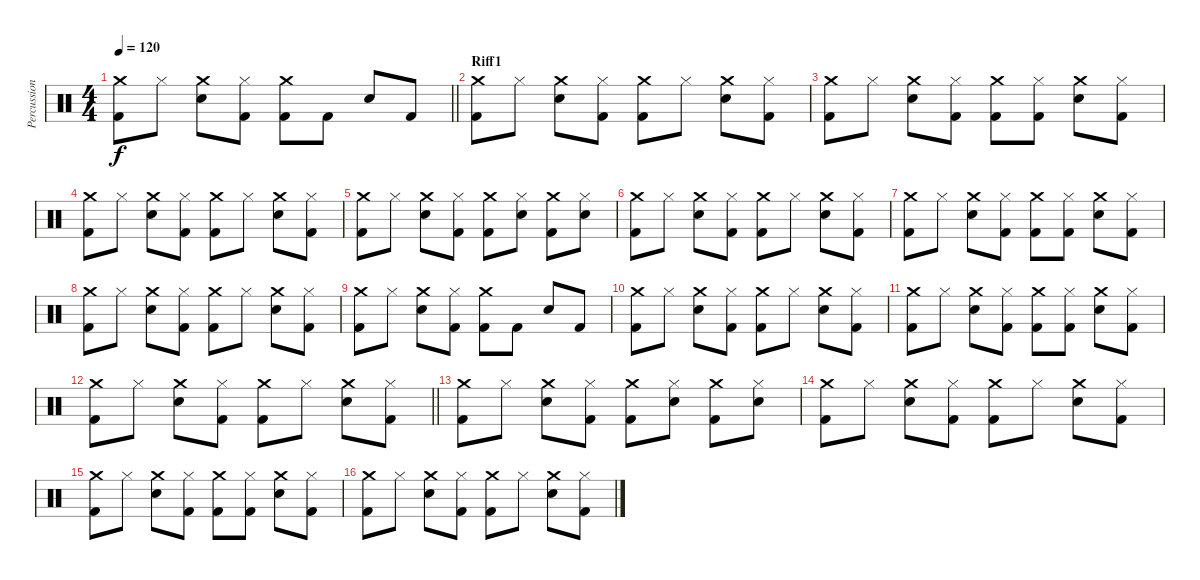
\track ("Percussion" "Percussion") {instrument percussion}
\staff {score}
\articulation defaults
\ts (4 4)
\tempo 120
\clef neutral
\barLineRight lightlight
\ks c
("Crash medium (hit)" "Kick (hit) 2").8{dy f} "Hi-Hat (closed)".8 ("Crash medium (hit)" "Electric Snare (hit)").8 ("Hi-Hat (closed)" "Kick (hit) 2").8 ("Crash medium (hit)" "Kick (hit) 2").8 "Kick (hit) 2".8 "Electric Snare (hit)".8 "Kick (hit) 2".8 |
\section ("" "Riff1")
("Crash medium (hit)" "Kick (hit) 2").8 "Hi-Hat (closed)".8 ("Crash medium (hit)" "Electric Snare (hit)").8 ("Hi-Hat (closed)" "Kick (hit) 2").8 ("Crash medium (hit)" "Kick (hit) 2").8 "Hi-Hat (closed)".8 ("Crash medium (hit)" "Electric Snare (hit)").8 ("Hi-Hat (closed)" "Kick (hit) 2").8 |
("Crash medium (hit)" "Kick (hit) 2").8 "Hi-Hat (closed)".8 ("Crash medium (hit)" "Electric Snare (hit)").8 ("Hi-Hat (closed)" "Kick (hit) 2").8 ("Crash medium (hit)" "Kick (hit) 2").8 ("Hi-Hat (closed)" "Kick (hit) 2").8 ("Crash medium (hit)" "Electric Snare (hit)").8 ("Hi-Hat (closed)" "Kick (hit) 2").8 |
("Crash medium (hit)" "Kick (hit) 2").8 "Hi-Hat (closed)".8 ("Crash medium (hit)" "Electric Snare (hit)").8 ("Hi-Hat (closed)" "Kick (hit) 2").8 ("Crash medium (hit)" "Kick (hit) 2").8 "Hi-Hat (closed)".8 ("Crash medium (hit)" "Electric Snare (hit)").8 ("Hi-Hat (closed)" "Kick (hit) 2").8 |
("Crash medium (hit)" "Kick (hit) 2").8 "Hi-Hat (closed)".8 ("Crash medium (hit)" "Electric Snare (hit)").8 ("Hi-Hat (closed)" "Kick (hit) 2").8 ("Crash medium (hit)" "Kick (hit) 2").8 ("Hi-Hat (closed)" "Electric Snare (hit)").8 ("Crash medium (hit)" "Kick (hit) 2").8 ("Hi-Hat (closed)" "Electric Snare (hit)").8 |
("Crash medium (hit)" "Kick (hit) 2").8 "Hi-Hat (closed)".8 ("Crash medium (hit)" "Electric Snare (hit)").8 ("Hi-Hat (closed)" "Kick (hit) 2").8 ("Crash medium (hit)" "Kick (hit) 2").8 "Hi-Hat (closed)".8 ("Crash medium (hit)" "Electric Snare (hit)").8 ("Hi-Hat (closed)" "Kick (hit) 2").8 |
("Crash medium (hit)" "Kick (hit) 2").8 "Hi-Hat (closed)".8 ("Crash medium (hit)" "Electric Snare (hit)").8 ("Hi-Hat (closed)" "Kick (hit) 2").8 ("Crash medium (hit)" "Kick (hit) 2").8 ("Hi-Hat (closed)" "Kick (hit) 2").8 ("Crash medium (hit)" "Electric Snare (hit)").8 ("Hi-Hat (closed)" "Kick (hit) 2").8 |
("Crash medium (hit)" "Kick (hit) 2").8 "Hi-Hat (closed)".8 ("Crash medium (hit)" "Electric Snare (hit)").8 ("Hi-Hat (closed)" "Kick (hit) 2").8 ("Crash medium (hit)" "Kick (hit) 2").8 "Hi-Hat (closed)".8 ("Crash medium (hit)" "Electric Snare (hit)").8 ("Hi-Hat (closed)" "Kick (hit) 2").8 |
("Crash medium (hit)" "Kick (hit) 2").8 "Hi-Hat (closed)".8 ("Crash medium (hit)" "Electric Snare (hit)").8 ("Hi-Hat (closed)" "Kick (hit) 2").8 ("Crash medium (hit)" "Kick (hit) 2").8 "Kick (hit) 2".8 "Electric Snare (hit)".8 "Kick (hit) 2".8 |
("Crash medium (hit)" "Kick (hit) 2").8 "Hi-Hat (closed)".8 ("Crash medium (hit)" "Electric Snare (hit)").8 ("Hi-Hat (closed)" "Kick (hit) 2").8 ("Crash medium (hit)" "Kick (hit) 2").8 "Hi-Hat (closed)".8 ("Crash medium (hit)" "Electric Snare (hit)").8 ("Hi-Hat (closed)" "Kick (hit) 2").8 |
("Crash medium (hit)" "Kick (hit) 2").8 "Hi-Hat (closed)".8 ("Crash medium (hit)" "Electric Snare (hit)").8 ("Hi-Hat (closed)" "Kick (hit) 2").8 ("Crash medium (hit)" "Kick (hit) 2").8 ("Hi-Hat (closed)" "Kick (hit) 2").8 ("Crash medium (hit)" "Electric Snare (hit)").8 ("Hi-Hat (closed)" "Kick (hit) 2").8 |
\barLineRight lightlight
("Crash medium (hit)" "Kick (hit) 2").8 "Hi-Hat (closed)".8 ("Crash medium (hit)" "Electric Snare (hit)").8 ("Hi-Hat (closed)" "Kick (hit) 2").8 ("Crash medium (hit)" "Kick (hit) 2").8 "Hi-Hat (closed)".8 ("Crash medium (hit)" "Electric Snare (hit)").8 ("Hi-Hat (closed)" "Kick (hit) 2").8 |
("Crash medium (hit)" "Kick (hit) 2").8 "Hi-Hat (closed)".8 ("Crash medium (hit)" "Electric Snare (hit)").8 ("Hi-Hat (closed)" "Kick (hit) 2").8 ("Crash medium (hit)" "Kick (hit) 2").8 ("Hi-Hat (closed)" "Electric Snare (hit)").8 ("Crash medium (hit)" "Kick (hit) 2").8 ("Hi-Hat (closed)" "Electric Snare (hit)").8 |
("Crash medium (hit)" "Kick (hit) 2").8 "Hi-Hat (closed)".8 ("Crash medium (hit)" "Electric Snare (hit)").8 ("Hi-Hat (closed)" "Kick (hit) 2").8 ("Crash medium (hit)" "Kick (hit) 2").8 "Hi-Hat (closed)".8 ("Crash medium (hit)" "Electric Snare (hit)").8 ("Hi-Hat (closed)" "Kick (hit) 2").8 |
("Crash medium (hit)" "Kick (hit) 2").8 "Hi-Hat (closed)".8 ("Crash medium (hit)" "Electric Snare (hit)").8 ("Hi-Hat (closed)" "Kick (hit) 2").8 ("Crash medium (hit)" "Kick (hit) 2").8 ("Hi-Hat (closed)" "Kick (hit) 2").8 ("Crash medium (hit)" "Electric Snare (hit)").8 ("Hi-Hat (closed)" "Kick (hit) 2").8 |
("Crash medium (hit)" "Kick (hit) 2").8 "Hi-Hat (closed)".8 ("Crash medium (hit)" "Electric Snare (hit)").8 ("Hi-Hat (closed)" "Kick (hit) 2").8 ("Crash medium (hit)" "Kick (hit) 2").8 "Hi-Hat (closed)".8 ("Crash medium (hit)" "Electric Snare (hit)").8 ("Hi-Hat (closed)" "Kick (hit) 2").8
